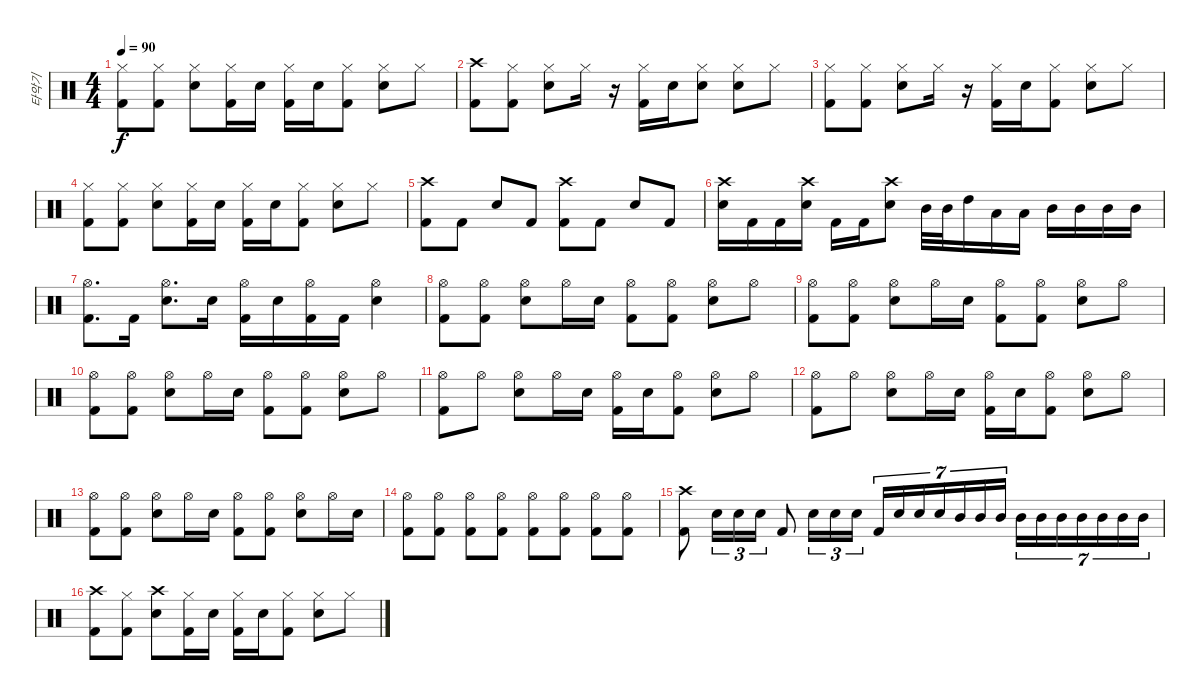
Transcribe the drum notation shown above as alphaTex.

\track ("타악기" "타악기") {instrument percussion}
\staff {score}
\articulation defaults
\ts (4 4)
\tempo 90
\clef neutral
\ks c
("Hi-Hat (closed)" "Kick (hit) 2").8{dy f} ("Hi-Hat (closed)" "Kick (hit) 2").8 ("Hi-Hat (closed)" "Electric Snare (hit)").8 ("Hi-Hat (closed)" "Kick (hit) 2").16 "Electric Snare (hit)".16 ("Hi-Hat (closed)" "Kick (hit) 2").16 "Electric Snare (hit)".16 ("Hi-Hat (closed)" "Kick (hit) 2").8 ("Hi-Hat (closed)" "Electric Snare (hit)").8 "Hi-Hat (closed)".8 |
("Crash high (hit)" "Kick (hit) 2").8 ("Hi-Hat (closed)" "Kick (hit) 2").8 ("Hi-Hat (closed)" "Electric Snare (hit)").8 "Hi-Hat (closed)".16 r.16 ("Hi-Hat (closed)" "Kick (hit) 2").16 "Electric Snare (hit)".16 ("Hi-Hat (closed)" "Electric Snare (hit)").8 ("Hi-Hat (closed)" "Electric Snare (hit)").8 "Hi-Hat (closed)".8 |
("Hi-Hat (closed)" "Kick (hit) 2").8 ("Hi-Hat (closed)" "Kick (hit) 2").8 ("Hi-Hat (closed)" "Electric Snare (hit)").8 "Hi-Hat (closed)".16 r.16 ("Hi-Hat (closed)" "Kick (hit) 2").16 "Electric Snare (hit)".16 ("Hi-Hat (closed)" "Kick (hit) 2").8 ("Hi-Hat (closed)" "Electric Snare (hit)").8 "Hi-Hat (closed)".8 |
("Hi-Hat (closed)" "Kick (hit) 2").8 ("Hi-Hat (closed)" "Kick (hit) 2").8 ("Hi-Hat (closed)" "Electric Snare (hit)").8 ("Hi-Hat (closed)" "Kick (hit) 2").16 "Electric Snare (hit)".16 ("Hi-Hat (closed)" "Kick (hit) 2").16 "Electric Snare (hit)".16 ("Hi-Hat (closed)" "Kick (hit) 2").8 ("Hi-Hat (closed)" "Electric Snare (hit)").8 "Hi-Hat (closed)".8 |
("Crash high (hit)" "Kick (hit) 2").8 "Kick (hit) 2".8 "Electric Snare (hit)".8 "Kick (hit) 2".8 ("Crash high (hit)" "Kick (hit) 2").8 "Kick (hit) 2".8 "Electric Snare (hit)".8 "Kick (hit) 2".8 |
("Crash high (hit)" "Electric Snare (hit)").16 "Kick (hit) 2".16 "Kick (hit) 2".16 ("Crash high (hit)" "Electric Snare (hit)").16 "Kick (hit) 2".16 "Kick (hit) 2".16 ("Crash high (hit)" "Electric Snare (hit)").8 "Mid Tom (hit)".32 "Mid Tom (hit)".32 "High Tom (hit)".16 "Low Tom (hit)".16 "Low Tom (hit)".16 "Mid Tom (hit)".16 "Mid Tom (hit)".16 "Mid Tom (hit)".16 "Mid Tom (hit)".16 |
("Kick (hit) 2" "Hi-Hat (open)").8{d} "Kick (hit) 2".16 ("Electric Snare (hit)" "Hi-Hat (open)").8{d} "Electric Snare (hit)".16 ("Kick (hit) 2" "Hi-Hat (open)").16 "Electric Snare (hit)".16 ("Kick (hit) 2" "Hi-Hat (open)").16 "Kick (hit) 2".16 ("Electric Snare (hit)" "Hi-Hat (open)").4 |
("Kick (hit) 2" "Hi-Hat (open)").8 ("Kick (hit) 2" "Hi-Hat (open)").8 ("Electric Snare (hit)" "Hi-Hat (open)").8 "Hi-Hat (open)".16 "Electric Snare (hit)".16 ("Kick (hit) 2" "Hi-Hat (open)").8 ("Kick (hit) 2" "Hi-Hat (open)").8 ("Electric Snare (hit)" "Hi-Hat (open)").8 "Hi-Hat (open)".8 |
("Kick (hit) 2" "Hi-Hat (open)").8 ("Kick (hit) 2" "Hi-Hat (open)").8 ("Electric Snare (hit)" "Hi-Hat (open)").8 "Hi-Hat (open)".16 "Electric Snare (hit)".16 ("Kick (hit) 2" "Hi-Hat (open)").8 ("Kick (hit) 2" "Hi-Hat (open)").8 ("Electric Snare (hit)" "Hi-Hat (open)").8 "Hi-Hat (open)".8 |
("Kick (hit) 2" "Hi-Hat (open)").8 ("Kick (hit) 2" "Hi-Hat (open)").8 ("Electric Snare (hit)" "Hi-Hat (open)").8 "Hi-Hat (open)".16 "Electric Snare (hit)".16 ("Kick (hit) 2" "Hi-Hat (open)").8 ("Kick (hit) 2" "Hi-Hat (open)").8 ("Electric Snare (hit)" "Hi-Hat (open)").8 "Hi-Hat (open)".8 |
("Kick (hit) 2" "Hi-Hat (open)").8 "Hi-Hat (open)".8 ("Electric Snare (hit)" "Hi-Hat (open)").8 "Hi-Hat (open)".16 "Electric Snare (hit)".16 ("Kick (hit) 2" "Hi-Hat (open)").16 "Electric Snare (hit)".16 ("Kick (hit) 2" "Hi-Hat (open)").8 ("Electric Snare (hit)" "Hi-Hat (open)").8 "Hi-Hat (open)".8 |
("Kick (hit) 2" "Hi-Hat (open)").8 "Hi-Hat (open)".8 ("Electric Snare (hit)" "Hi-Hat (open)").8 "Hi-Hat (open)".16 "Electric Snare (hit)".16 ("Kick (hit) 2" "Hi-Hat (open)").16 "Electric Snare (hit)".16 ("Kick (hit) 2" "Hi-Hat (open)").8 ("Electric Snare (hit)" "Hi-Hat (open)").8 "Hi-Hat (open)".8 |
("Kick (hit) 2" "Hi-Hat (open)").8 ("Kick (hit) 2" "Hi-Hat (open)").8 ("Electric Snare (hit)" "Hi-Hat (open)").8 "Hi-Hat (open)".16 "Electric Snare (hit)".16 ("Kick (hit) 2" "Hi-Hat (open)").8 ("Kick (hit) 2" "Hi-Hat (open)").8 ("Electric Snare (hit)" "Hi-Hat (open)").8 "Hi-Hat (open)".16 "Electric Snare (hit)".16 |
("Kick (hit) 2" "Hi-Hat (open)").8 ("Kick (hit) 2" "Hi-Hat (open)").8 ("Kick (hit) 2" "Hi-Hat (open)").8 ("Kick (hit) 2" "Hi-Hat (open)").8 ("Kick (hit) 2" "Hi-Hat (open)").8 ("Kick (hit) 2" "Hi-Hat (open)").8 ("Kick (hit) 2" "Hi-Hat (open)").8 ("Kick (hit) 2" "Hi-Hat (open)").8 |
("Kick (hit) 2" "Crash high (hit)").8 "Electric Snare (hit)".16{tu (3 2)} "Electric Snare (hit)".16{tu (3 2)} "Electric Snare (hit)".16{tu (3 2)} "Kick (hit) 2".8 "Electric Snare (hit)".16{tu (3 2)} "Electric Snare (hit)".16{tu (3 2)} "Electric Snare (hit)".16{tu (3 2)} "Kick (hit) 2".16{tu (7 4)} "Electric Snare (hit)".16{tu (7 4)} "Electric Snare (hit)".16{tu (7 4)} "Electric Snare (hit)".16{tu (7 4)} "Mid Tom (hit)".16{tu (7 4)} "Mid Tom (hit)".16{tu (7 4)} "Mid Tom (hit)".16{tu (7 4)} "Mid Tom (hit)".16{tu (7 4)} "Mid Tom (hit)".16{tu (7 4)} "Mid Tom (hit)".16{tu (7 4)} "Mid Tom (hit)".16{tu (7 4)} "Mid Tom (hit)".16{tu (7 4)} "Mid Tom (hit)".16{tu (7 4)} "Mid Tom (hit)".16{tu (7 4)} |
("Crash high (hit)" "Kick (hit) 2").8 ("Hi-Hat (closed)" "Kick (hit) 2").8 ("Crash high (hit)" "Electric Snare (hit)").8 ("Hi-Hat (closed)" "Kick (hit) 2").16 "Electric Snare (hit)".16 ("Hi-Hat (closed)" "Kick (hit) 2").16 "Electric Snare (hit)".16 ("Hi-Hat (closed)" "Kick (hit) 2").8 ("Hi-Hat (closed)" "Electric Snare (hit)").8 "Hi-Hat (closed)".8
